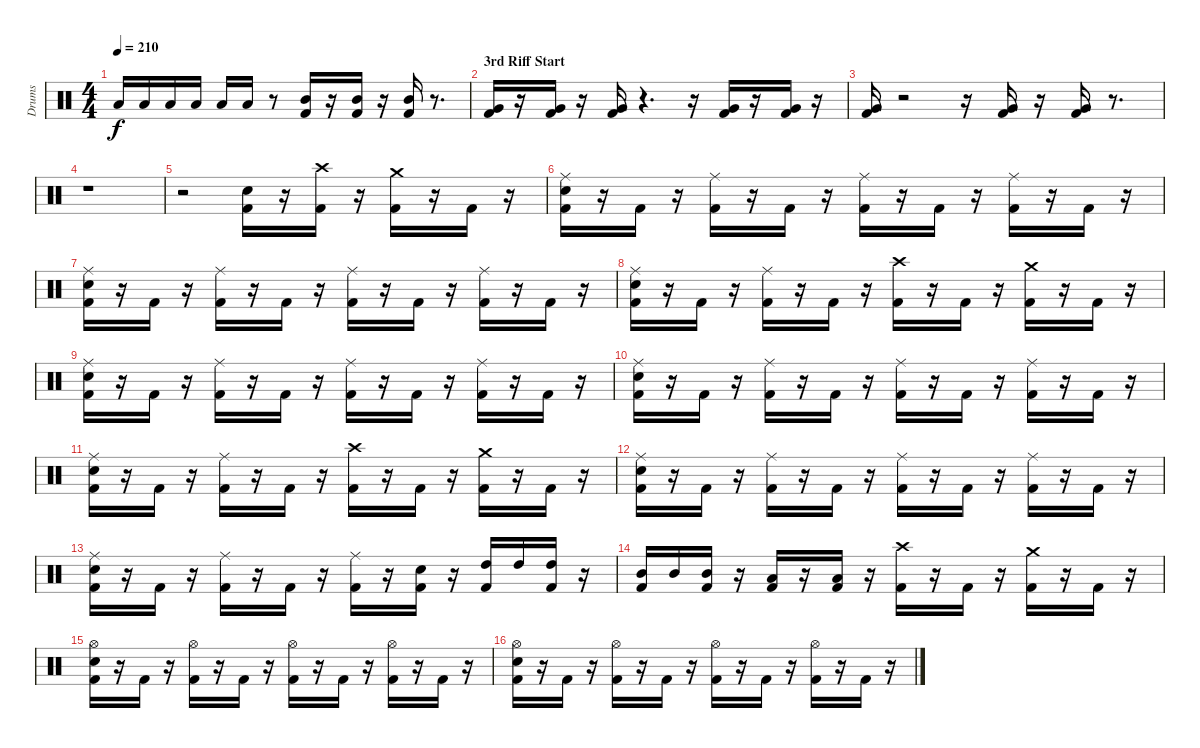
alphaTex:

\track ("Drums" "Drums") {instrument percussion}
\staff {score}
\articulation defaults
\ts (4 4)
\tempo 210
\clef neutral
\ks c "Low Tom (hit)".16{dy f} "Low Tom (hit)".16 "Low Tom (hit)".16 "Low Tom (hit)".16 "Low Tom (hit)".16 "Low Tom (hit)".16
r.8 ("Kick (hit) 2" "Mid Tom (hit)").16 r.16 ("Kick (hit) 2" "Mid Tom (hit)").16 r.16 ("Kick (hit) 2" "Mid Tom (hit)").16 r.8{d} |
\section ("" "3rd Riff Start")
("Very Low Tom (hit)" "Kick (hit) 2").16 r.16 ("Kick (hit) 2" "Very Low Tom (hit)").16 r.16 ("Kick (hit) 2" "Very Low Tom (hit)").16 r.4{d} r.16 ("Very Low Tom (hit)" "Kick (hit) 2").16 r.16 ("Kick (hit) 2" "Very Low Tom (hit)").16 r.16 |
("Kick (hit) 2" "Very Low Tom (hit)").16 r.2 r.16 ("Kick (hit) 2" "Very Low Tom (hit)").16 r.16 ("Very Low Tom (hit)" "Kick (hit) 2").16 r.8{d} |
r.1 |
r.2 ("Kick (hit) 2" "Snare (hit) 2").16 r.16 ("Crash high (hit)" "Kick (hit) 2").16 r.16 ("Kick (hit) 2" "Crash medium (hit)").16 r.16 "Kick (hit) 2".16 r.16 |
("Kick (hit) 2" "Snare (hit) 2" "Ride (middle)").16 r.16 "Kick (hit) 2".16 r.16 ("Kick (hit) 2" "Ride (middle)").16 r.16 "Kick (hit) 2".16 r.16 ("Kick (hit) 2" "Ride (middle)").16 r.16 "Kick (hit) 2".16 r.16 ("Ride (middle)" "Kick (hit) 2").16 r.16 "Kick (hit) 2".16 r.16 |
("Kick (hit) 2" "Snare (hit) 2" "Ride (middle)").16 r.16 "Kick (hit) 2".16 r.16 ("Kick (hit) 2" "Ride (middle)").16 r.16 "Kick (hit) 2".16 r.16 ("Ride (middle)" "Kick (hit) 2").16 r.16 "Kick (hit) 2".16 r.16 ("Ride (middle)" "Kick (hit) 2").16 r.16 "Kick (hit) 2".16 r.16 |
("Ride (middle)" "Kick (hit) 2" "Snare (hit) 2").16 r.16 "Kick (hit) 2".16 r.16 ("Ride (middle)" "Kick (hit) 2").16 r.16 "Kick (hit) 2".16 r.16 ("Crash high (hit)" "Kick (hit) 2").16 r.16 "Kick (hit) 2".16 r.16 ("Crash medium (hit)" "Kick (hit) 2").16 r.16 "Kick (hit) 2".16 r.16 |
("Ride (middle)" "Snare (hit) 2" "Kick (hit) 2").16 r.16 "Kick (hit) 2".16 r.16 ("Kick (hit) 2" "Ride (middle)").16 r.16 "Kick (hit) 2".16 r.16 ("Ride (middle)" "Kick (hit) 2").16 r.16 "Kick (hit) 2".16 r.16 ("Kick (hit) 2" "Ride (middle)").16 r.16 "Kick (hit) 2".16 r.16 |
("Snare (hit) 2" "Kick (hit) 2" "Ride (middle)").16 r.16 "Kick (hit) 2".16 r.16 ("Kick (hit) 2" "Ride (middle)").16 r.16 "Kick (hit) 2".16 r.16 ("Ride (middle)" "Kick (hit) 2").16 r.16 "Kick (hit) 2".16 r.16 ("Ride (middle)" "Kick (hit) 2").16 r.16 "Kick (hit) 2".16 r.16 |
("Snare (hit) 2" "Kick (hit) 2" "Ride (middle)").16 r.16 "Kick (hit) 2".16 r.16 ("Kick (hit) 2" "Ride (middle)").16 r.16 "Kick (hit) 2".16 r.16 ("Kick (hit) 2" "Crash high (hit)").16 r.16 "Kick (hit) 2".16 r.16 ("Crash medium (hit)" "Kick (hit) 2").16 r.16 "Kick (hit) 2".16 r.16 |
("Snare (hit) 2" "Kick (hit) 2" "Ride (middle)").16 r.16 "Kick (hit) 2".16 r.16 ("Ride (middle)" "Kick (hit) 2").16 r.16 "Kick (hit) 2".16 r.16 ("Ride (middle)" "Kick (hit) 2").16 r.16 "Kick (hit) 2".16 r.16 ("Kick (hit) 2" "Ride (middle)").16 r.16 "Kick (hit) 2".16 r.16 |
("Kick (hit) 2" "Ride (middle)" "Snare (hit) 2").16 r.16 "Kick (hit) 2".16 r.16 ("Kick (hit) 2" "Ride (middle)").16 r.16 "Kick (hit) 2".16 r.16 ("Kick (hit) 2" "Ride (middle)").16 r.16 ("Snare (hit) 2" "Kick (hit) 2").16 r.16 ("High Tom (hit)" "Kick (hit) 2").16 "High Tom (hit)".16 ("Kick (hit) 2" "High Tom (hit)").16 r.16 |
("Mid Tom (hit)" "Kick (hit) 2").16 "Mid Tom (hit)".16 ("Mid Tom (hit)" "Kick (hit) 2").16 r.16 ("Kick (hit) 2" "Low Tom (hit)").16 r.16 ("Low Tom (hit)" "Kick (hit) 2").16 r.16 ("Crash high (hit)" "Kick (hit) 2").16 r.16 "Kick (hit) 2".16 r.16 ("Crash medium (hit)" "Kick (hit) 2").16 r.16 "Kick (hit) 2".16 r.16 |
("Snare (hit) 2" "Hi-Hat (open)" "Kick (hit) 2").16 r.16 "Kick (hit) 2".16 r.16 ("Kick (hit) 2" "Hi-Hat (open)").16 r.16 "Kick (hit) 2".16 r.16 ("Kick (hit) 2" "Hi-Hat (open)").16 r.16 "Kick (hit) 2".16 r.16 ("Hi-Hat (open)" "Kick (hit) 2").16 r.16 "Kick (hit) 2".16 r.16 |
("Hi-Hat (open)" "Kick (hit) 2" "Snare (hit) 2").16 r.16 "Kick (hit) 2".16 r.16 ("Kick (hit) 2" "Hi-Hat (open)").16 r.16 "Kick (hit) 2".16 r.16 ("Kick (hit) 2" "Hi-Hat (open)").16 r.16 "Kick (hit) 2".16 r.16 ("Kick (hit) 2" "Hi-Hat (open)").16 r.16 "Kick (hit) 2".16 r.16
